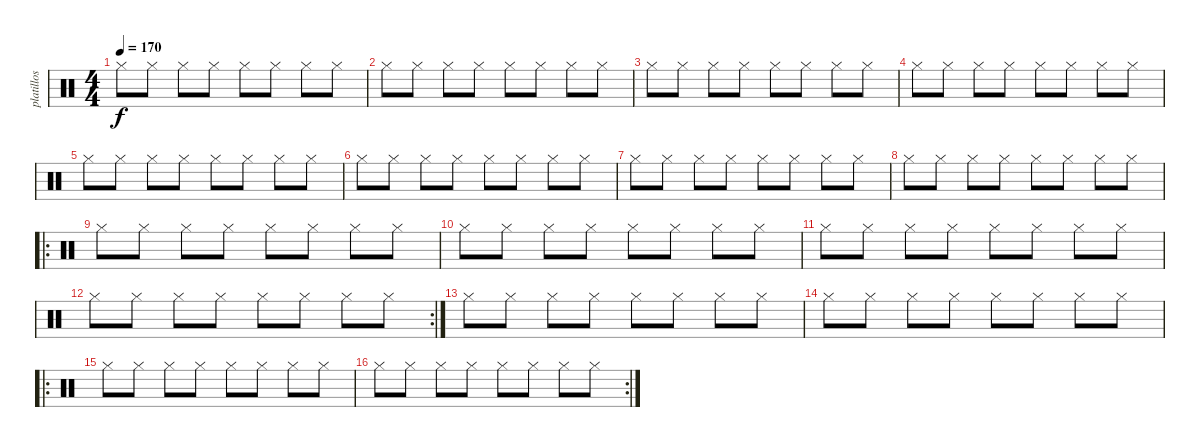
\track ("platillos" "platillos") {instrument percussion}
\staff {score}
\articulation defaults
\ts (4 4)
\tempo 170
\clef neutral
\ks c "Hi-Hat (closed)".8{dy f} "Hi-Hat (closed)".8 "Hi-Hat (closed)".8 "Hi-Hat (closed)".8 "Hi-Hat (closed)".8 "Hi-Hat (closed)".8 "Hi-Hat (closed)".8 "Hi-Hat (closed)".8
|
"Hi-Hat (closed)".8 "Hi-Hat (closed)".8 "Hi-Hat (closed)".8 "Hi-Hat (closed)".8 "Hi-Hat (closed)".8 "Hi-Hat (closed)".8 "Hi-Hat (closed)".8 "Hi-Hat (closed)".8 |
"Hi-Hat (closed)".8 "Hi-Hat (closed)".8 "Hi-Hat (closed)".8 "Hi-Hat (closed)".8 "Hi-Hat (closed)".8 "Hi-Hat (closed)".8 "Hi-Hat (closed)".8 "Hi-Hat (closed)".8 |
"Hi-Hat (closed)".8 "Hi-Hat (closed)".8 "Hi-Hat (closed)".8 "Hi-Hat (closed)".8 "Hi-Hat (closed)".8 "Hi-Hat (closed)".8 "Hi-Hat (closed)".8 "Hi-Hat (closed)".8 |
"Hi-Hat (closed)".8 "Hi-Hat (closed)".8 "Hi-Hat (closed)".8 "Hi-Hat (closed)".8 "Hi-Hat (closed)".8 "Hi-Hat (closed)".8 "Hi-Hat (closed)".8 "Hi-Hat (closed)".8 |
"Hi-Hat (closed)".8 "Hi-Hat (closed)".8 "Hi-Hat (closed)".8 "Hi-Hat (closed)".8 "Hi-Hat (closed)".8 "Hi-Hat (closed)".8 "Hi-Hat (closed)".8 "Hi-Hat (closed)".8 |
"Hi-Hat (closed)".8 "Hi-Hat (closed)".8 "Hi-Hat (closed)".8 "Hi-Hat (closed)".8 "Hi-Hat (closed)".8 "Hi-Hat (closed)".8 "Hi-Hat (closed)".8 "Hi-Hat (closed)".8 |
"Hi-Hat (closed)".8 "Hi-Hat (closed)".8 "Hi-Hat (closed)".8 "Hi-Hat (closed)".8 "Hi-Hat (closed)".8 "Hi-Hat (closed)".8 "Hi-Hat (closed)".8 "Hi-Hat (closed)".8 |
\ro "Hi-Hat (closed)".8 "Hi-Hat (closed)".8 "Hi-Hat (closed)".8 "Hi-Hat (closed)".8 "Hi-Hat (closed)".8 "Hi-Hat (closed)".8 "Hi-Hat (closed)".8 "Hi-Hat (closed)".8
|
"Hi-Hat (closed)".8 "Hi-Hat (closed)".8 "Hi-Hat (closed)".8 "Hi-Hat (closed)".8 "Hi-Hat (closed)".8 "Hi-Hat (closed)".8 "Hi-Hat (closed)".8 "Hi-Hat (closed)".8 |
"Hi-Hat (closed)".8 "Hi-Hat (closed)".8 "Hi-Hat (closed)".8 "Hi-Hat (closed)".8 "Hi-Hat (closed)".8 "Hi-Hat (closed)".8 "Hi-Hat (closed)".8 "Hi-Hat (closed)".8 |
\rc 2 "Hi-Hat (closed)".8 "Hi-Hat (closed)".8 "Hi-Hat (closed)".8 "Hi-Hat (closed)".8 "Hi-Hat (closed)".8 "Hi-Hat (closed)".8 "Hi-Hat (closed)".8 "Hi-Hat (closed)".8
|
"Hi-Hat (closed)".8 "Hi-Hat (closed)".8 "Hi-Hat (closed)".8 "Hi-Hat (closed)".8 "Hi-Hat (closed)".8 "Hi-Hat (closed)".8 "Hi-Hat (closed)".8 "Hi-Hat (closed)".8 |
"Hi-Hat (closed)".8 "Hi-Hat (closed)".8 "Hi-Hat (closed)".8 "Hi-Hat (closed)".8 "Hi-Hat (closed)".8 "Hi-Hat (closed)".8 "Hi-Hat (closed)".8 "Hi-Hat (closed)".8 |
\ro "Hi-Hat (closed)".8 "Hi-Hat (closed)".8 "Hi-Hat (closed)".8 "Hi-Hat (closed)".8 "Hi-Hat (closed)".8 "Hi-Hat (closed)".8 "Hi-Hat (closed)".8 "Hi-Hat (closed)".8
|
\rc 2 "Hi-Hat (closed)".8 "Hi-Hat (closed)".8 "Hi-Hat (closed)".8 "Hi-Hat (closed)".8 "Hi-Hat (closed)".8 "Hi-Hat (closed)".8 "Hi-Hat (closed)".8 "Hi-Hat (closed)".8
